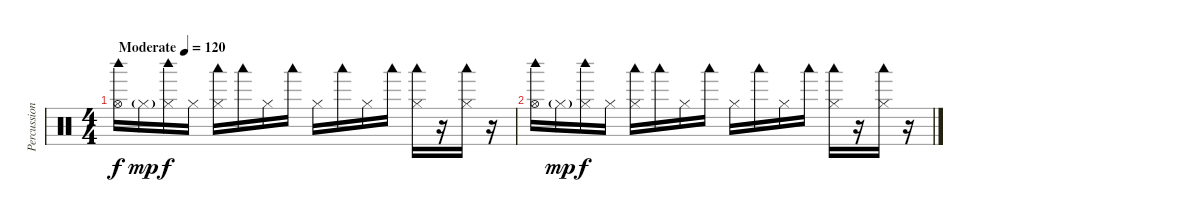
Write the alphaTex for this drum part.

\track ("Percussion" "Percussion") {instrument percussion}
\staff {score}
\articulation defaults
\ts (4 4)
\tempo (120 "Moderate")
\clef neutral
\ks c
("Woodblock high (hit)" "Hi-Hat (open)").16{dy f} "Hi-Hat (closed)"{g}.16{dy mp} ("Woodblock high (hit)" "Hi-Hat (closed)").16{dy f} "Hi-Hat (closed)".16 ("Woodblock low (hit)" "Hi-Hat (closed)").16 "Woodblock low (hit)".16 "Hi-Hat (closed)".16 "Woodblock low (hit)".16 "Hi-Hat (closed)".16 "Woodblock low (hit)".16 "Hi-Hat (closed)".16 "Woodblock low (hit)".16 ("Woodblock low (hit)" "Hi-Hat (closed)").16 r.16 ("Woodblock low (hit)" "Hi-Hat (closed)").16 r.16 |
("Woodblock high (hit)" "Hi-Hat (open)").16 "Hi-Hat (closed)"{g}.16{dy mp} ("Woodblock high (hit)" "Hi-Hat (closed)").16{dy f} "Hi-Hat (closed)".16 ("Woodblock low (hit)" "Hi-Hat (closed)").16 "Woodblock low (hit)".16 "Hi-Hat (closed)".16 "Woodblock low (hit)".16 "Hi-Hat (closed)".16 "Woodblock low (hit)".16 "Hi-Hat (closed)".16 "Woodblock low (hit)".16 ("Woodblock low (hit)" "Hi-Hat (closed)").16 r.16 ("Woodblock low (hit)" "Hi-Hat (closed)").16 r.16
